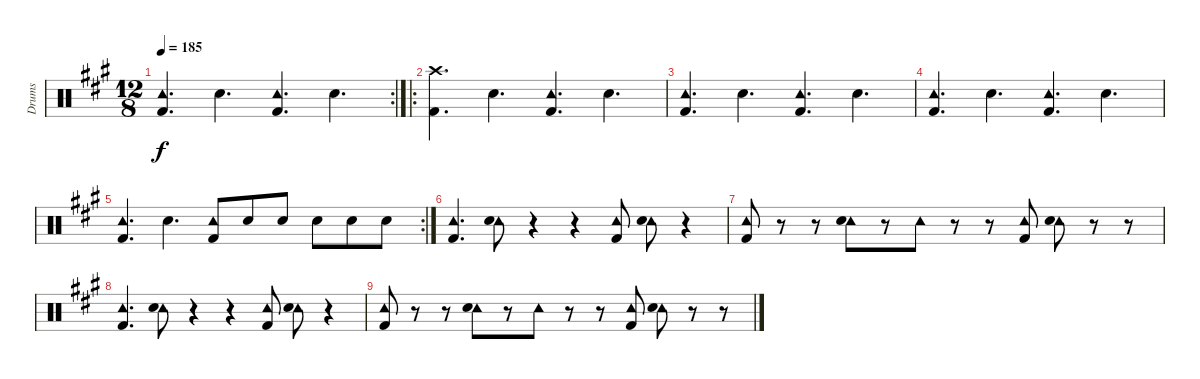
\track ("Drums" "Drums") {instrument percussion}
\staff {score}
\articulation defaults
\rc 2
\ts (12 8)
\tempo 185
\clef neutral
\ks a
("Tambourine (hit)" "Kick (hit) 2").4{d dy f} "Snare (hit) 2".4{d} ("Tambourine (hit)" "Kick (hit) 2").4{d} "Snare (hit) 2".4{d} |
\ro
("Crash high (hit)" "Kick (hit) 2").4{d} "Snare (hit) 2".4{d} ("Tambourine (hit)" "Kick (hit) 2").4{d} "Snare (hit) 2".4{d} |
("Tambourine (hit)" "Kick (hit) 2").4{d} "Snare (hit) 2".4{d} ("Tambourine (hit)" "Kick (hit) 2").4{d} "Snare (hit) 2".4{d} |
("Tambourine (hit)" "Kick (hit) 2").4{d} "Snare (hit) 2".4{d} ("Tambourine (hit)" "Kick (hit) 2").4{d} "Snare (hit) 2".4{d} |
\rc 2
("Tambourine (hit)" "Kick (hit) 2").4{d} "Snare (hit) 2".4{d} ("Tambourine (hit)" "Kick (hit) 2").8 "Snare (hit) 2".8 "Snare (hit) 2".8 "Snare (hit) 2".8 "Snare (hit) 2".8 "Snare (hit) 2".8 |
("Tambourine (hit)" "Kick (hit) 2").4{d} ("Tambourine (hit)" "Snare (hit) 2").8 r.4 r.4 ("Tambourine (hit)" "Kick (hit) 2").8 ("Tambourine (hit)" "Snare (hit) 2").8 r.4 |
("Tambourine (hit)" "Kick (hit) 2").8 r.8 r.8 ("Tambourine (hit)" "Snare (hit) 2").8 r.8 "Tambourine (hit)".8 r.8 r.8 ("Tambourine (hit)" "Kick (hit) 2").8 ("Tambourine (hit)" "Snare (hit) 2").8 r.8 r.8 |
("Tambourine (hit)" "Kick (hit) 2").4{d} ("Tambourine (hit)" "Snare (hit) 2").8 r.4 r.4 ("Tambourine (hit)" "Kick (hit) 2").8 ("Tambourine (hit)" "Snare (hit) 2").8 r.4 |
("Tambourine (hit)" "Kick (hit) 2").8 r.8 r.8 ("Tambourine (hit)" "Snare (hit) 2").8 r.8 "Tambourine (hit)".8 r.8 r.8 ("Tambourine (hit)" "Kick (hit) 2").8 ("Tambourine (hit)" "Snare (hit) 2").8 r.8 r.8
